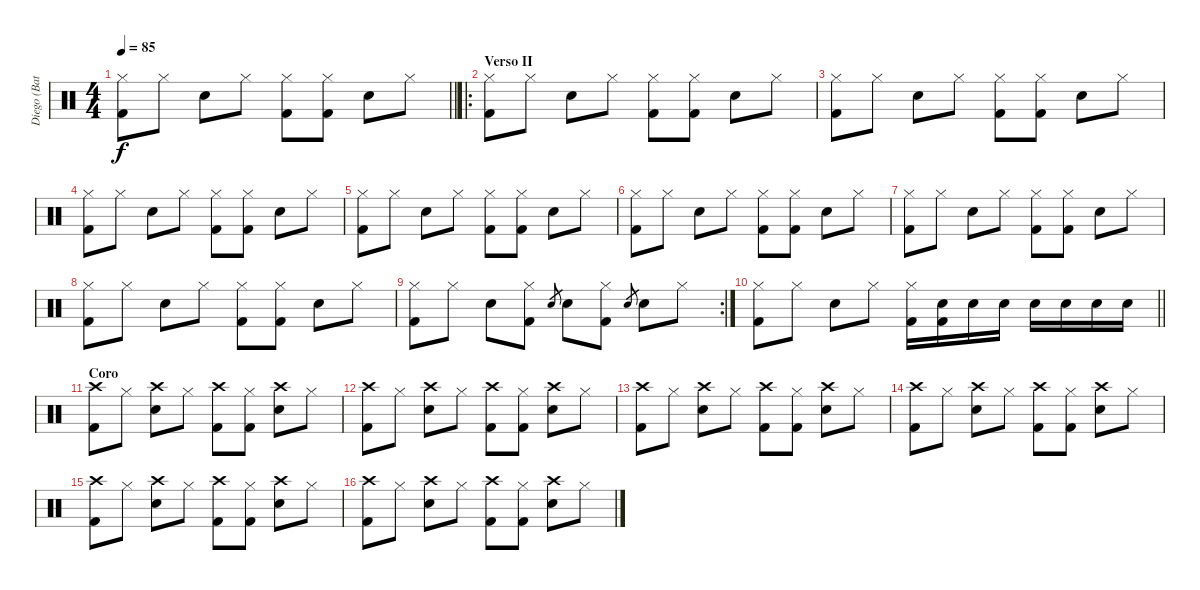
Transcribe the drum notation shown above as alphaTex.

\track ("Diego (Bateria)" "Diego (Bat") {instrument percussion}
\staff {score}
\articulation defaults
\ts (4 4)
\tempo 85
\clef neutral
\barLineRight lightlight
\ks c
("Hi-Hat (closed)" "Kick (hit) 2").8{dy f} "Hi-Hat (closed)".8 "Electric Snare (hit)".8 "Hi-Hat (closed)".8 ("Hi-Hat (closed)" "Kick (hit) 2").8 ("Hi-Hat (closed)" "Kick (hit) 2").8 "Electric Snare (hit)".8 "Hi-Hat (closed)".8 |
\ro
\section ("" "Verso II")
("Hi-Hat (closed)" "Kick (hit) 2").8 "Hi-Hat (closed)".8 "Electric Snare (hit)".8 "Hi-Hat (closed)".8 ("Hi-Hat (closed)" "Kick (hit) 2").8 ("Hi-Hat (closed)" "Kick (hit) 2").8 "Electric Snare (hit)".8 "Hi-Hat (closed)".8 |
("Hi-Hat (closed)" "Kick (hit) 2").8 "Hi-Hat (closed)".8 "Electric Snare (hit)".8 "Hi-Hat (closed)".8 ("Hi-Hat (closed)" "Kick (hit) 2").8 ("Hi-Hat (closed)" "Kick (hit) 2").8 "Electric Snare (hit)".8 "Hi-Hat (closed)".8 |
("Hi-Hat (closed)" "Kick (hit) 2").8 "Hi-Hat (closed)".8 "Electric Snare (hit)".8 "Hi-Hat (closed)".8 ("Hi-Hat (closed)" "Kick (hit) 2").8 ("Hi-Hat (closed)" "Kick (hit) 2").8 "Electric Snare (hit)".8 "Hi-Hat (closed)".8 |
("Hi-Hat (closed)" "Kick (hit) 2").8 "Hi-Hat (closed)".8 "Electric Snare (hit)".8 "Hi-Hat (closed)".8 ("Hi-Hat (closed)" "Kick (hit) 2").8 ("Hi-Hat (closed)" "Kick (hit) 2").8 "Electric Snare (hit)".8 "Hi-Hat (closed)".8 |
("Hi-Hat (closed)" "Kick (hit) 2").8 "Hi-Hat (closed)".8 "Electric Snare (hit)".8 "Hi-Hat (closed)".8 ("Hi-Hat (closed)" "Kick (hit) 2").8 ("Hi-Hat (closed)" "Kick (hit) 2").8 "Electric Snare (hit)".8 "Hi-Hat (closed)".8 |
("Hi-Hat (closed)" "Kick (hit) 2").8 "Hi-Hat (closed)".8 "Electric Snare (hit)".8 "Hi-Hat (closed)".8 ("Hi-Hat (closed)" "Kick (hit) 2").8 ("Hi-Hat (closed)" "Kick (hit) 2").8 "Electric Snare (hit)".8 "Hi-Hat (closed)".8 |
("Hi-Hat (closed)" "Kick (hit) 2").8 "Hi-Hat (closed)".8 "Electric Snare (hit)".8 "Hi-Hat (closed)".8 ("Hi-Hat (closed)" "Kick (hit) 2").8 ("Hi-Hat (closed)" "Kick (hit) 2").8 "Electric Snare (hit)".8 "Hi-Hat (closed)".8 |
\rc 2
("Hi-Hat (closed)" "Kick (hit) 2").8 "Hi-Hat (closed)".8 "Electric Snare (hit)".8 ("Hi-Hat (closed)" "Kick (hit) 2").8 "Electric Snare (hit)".8{gr} "Electric Snare (hit)".8 ("Hi-Hat (closed)" "Kick (hit) 2").8 "Electric Snare (hit)".8{gr} "Electric Snare (hit)".8 "Hi-Hat (closed)".8 |
\barLineRight lightlight
("Hi-Hat (closed)" "Kick (hit) 2").8 "Hi-Hat (closed)".8 "Electric Snare (hit)".8 "Hi-Hat (closed)".8 ("Hi-Hat (closed)" "Kick (hit) 2").16 ("Electric Snare (hit)" "Kick (hit) 2").16 "Electric Snare (hit)".16 "Electric Snare (hit)".16 "Electric Snare (hit)".16 "Electric Snare (hit)".16 "Electric Snare (hit)".16 "Electric Snare (hit)".16 |
\section ("" "Coro")
("Crash high (hit)" "Kick (hit) 2").8 "Hi-Hat (closed)".8 ("Crash high (hit)" "Electric Snare (hit)").8 "Hi-Hat (closed)".8 ("Crash high (hit)" "Kick (hit) 2").8 ("Hi-Hat (closed)" "Kick (hit) 2").8 ("Crash high (hit)" "Electric Snare (hit)").8 "Hi-Hat (closed)".8 |
("Crash high (hit)" "Kick (hit) 2").8 "Hi-Hat (closed)".8 ("Crash high (hit)" "Electric Snare (hit)").8 "Hi-Hat (closed)".8 ("Crash high (hit)" "Kick (hit) 2").8 ("Hi-Hat (closed)" "Kick (hit) 2").8 ("Crash high (hit)" "Electric Snare (hit)").8 "Hi-Hat (closed)".8 |
("Crash high (hit)" "Kick (hit) 2").8 "Hi-Hat (closed)".8 ("Crash high (hit)" "Electric Snare (hit)").8 "Hi-Hat (closed)".8 ("Crash high (hit)" "Kick (hit) 2").8 ("Hi-Hat (closed)" "Kick (hit) 2").8 ("Crash high (hit)" "Electric Snare (hit)").8 "Hi-Hat (closed)".8 |
("Crash high (hit)" "Kick (hit) 2").8 "Hi-Hat (closed)".8 ("Crash high (hit)" "Electric Snare (hit)").8 "Hi-Hat (closed)".8 ("Crash high (hit)" "Kick (hit) 2").8 ("Hi-Hat (closed)" "Kick (hit) 2").8 ("Crash high (hit)" "Electric Snare (hit)").8 "Hi-Hat (closed)".8 |
("Crash high (hit)" "Kick (hit) 2").8 "Hi-Hat (closed)".8 ("Crash high (hit)" "Electric Snare (hit)").8 "Hi-Hat (closed)".8 ("Crash high (hit)" "Kick (hit) 2").8 ("Hi-Hat (closed)" "Kick (hit) 2").8 ("Crash high (hit)" "Electric Snare (hit)").8 "Hi-Hat (closed)".8 |
("Crash high (hit)" "Kick (hit) 2").8 "Hi-Hat (closed)".8 ("Crash high (hit)" "Electric Snare (hit)").8 "Hi-Hat (closed)".8 ("Crash high (hit)" "Kick (hit) 2").8 ("Hi-Hat (closed)" "Kick (hit) 2").8 ("Crash high (hit)" "Electric Snare (hit)").8 "Hi-Hat (closed)".8
